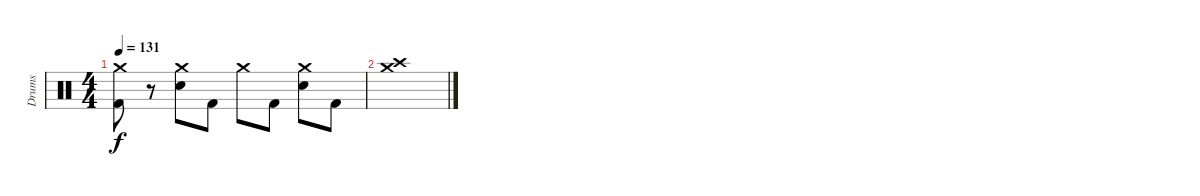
\track ("Drums" "Drums") {instrument percussion}
\staff {score}
\articulation defaults
\ts (4 4)
\tempo 131
\clef neutral
\ks c
("Crash medium (hit)" "Kick (hit) 2").8{dy f} r.8 ("Crash medium (hit)" "Snare (hit) 2").8 "Kick (hit) 2".8 "Crash medium (hit)".8 "Kick (hit) 2".8 ("Crash medium (hit)" "Snare (hit) 2").8 "Kick (hit) 2".8 |
("Crash medium (hit)" "Crash high (hit)").1
